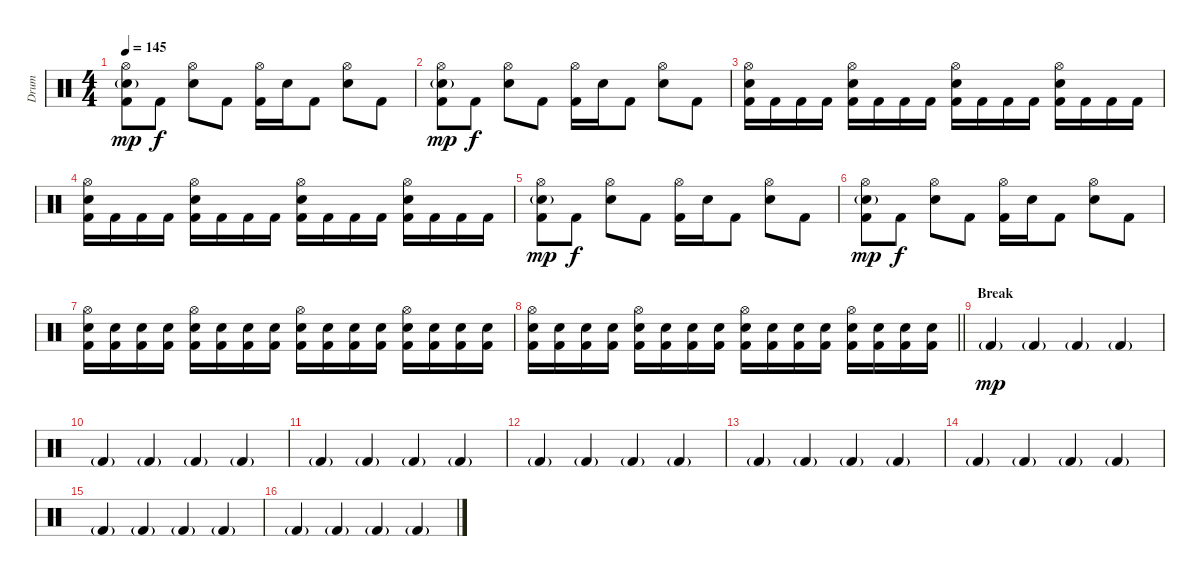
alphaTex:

\track ("Drum" "Drum") {instrument percussion}
\staff {score}
\articulation defaults
\ts (4 4)
\tempo 145
\clef neutral
\ks c
("Hi-Hat (open)" "Electric Snare (hit)"{g} "Kick (hit) 2").8{dy mp} "Kick (hit) 2".8{dy f} ("Hi-Hat (open)" "Electric Snare (hit)").8 "Kick (hit) 2".8 ("Hi-Hat (open)" "Kick (hit) 2").16 "Electric Snare (hit)".16 "Kick (hit) 2".8 ("Hi-Hat (open)" "Electric Snare (hit)").8 "Kick (hit) 2".8 |
("Hi-Hat (open)" "Electric Snare (hit)"{g} "Kick (hit) 2").8{dy mp} "Kick (hit) 2".8{dy f} ("Hi-Hat (open)" "Electric Snare (hit)").8 "Kick (hit) 2".8 ("Hi-Hat (open)" "Kick (hit) 2").16 "Electric Snare (hit)".16 "Kick (hit) 2".8 ("Hi-Hat (open)" "Electric Snare (hit)").8 "Kick (hit) 2".8 |
("Hi-Hat (open)" "Electric Snare (hit)" "Kick (hit) 2").16 "Kick (hit) 2".16 "Kick (hit) 2".16 "Kick (hit) 2".16 ("Hi-Hat (open)" "Electric Snare (hit)" "Kick (hit) 2").16 "Kick (hit) 2".16 "Kick (hit) 2".16 "Kick (hit) 2".16 ("Hi-Hat (open)" "Electric Snare (hit)" "Kick (hit) 2").16 "Kick (hit) 2".16 "Kick (hit) 2".16 "Kick (hit) 2".16 ("Hi-Hat (open)" "Electric Snare (hit)" "Kick (hit) 2").16 "Kick (hit) 2".16 "Kick (hit) 2".16 "Kick (hit) 2".16 |
("Hi-Hat (open)" "Electric Snare (hit)" "Kick (hit) 2").16 "Kick (hit) 2".16 "Kick (hit) 2".16 "Kick (hit) 2".16 ("Hi-Hat (open)" "Electric Snare (hit)" "Kick (hit) 2").16 "Kick (hit) 2".16 "Kick (hit) 2".16 "Kick (hit) 2".16 ("Hi-Hat (open)" "Electric Snare (hit)" "Kick (hit) 2").16 "Kick (hit) 2".16 "Kick (hit) 2".16 "Kick (hit) 2".16 ("Hi-Hat (open)" "Electric Snare (hit)" "Kick (hit) 2").16 "Kick (hit) 2".16 "Kick (hit) 2".16 "Kick (hit) 2".16 |
("Hi-Hat (open)" "Electric Snare (hit)"{g} "Kick (hit) 2").8{dy mp} "Kick (hit) 2".8{dy f} ("Hi-Hat (open)" "Electric Snare (hit)").8 "Kick (hit) 2".8 ("Hi-Hat (open)" "Kick (hit) 2").16 "Electric Snare (hit)".16 "Kick (hit) 2".8 ("Hi-Hat (open)" "Electric Snare (hit)").8 "Kick (hit) 2".8 |
("Hi-Hat (open)" "Electric Snare (hit)"{g} "Kick (hit) 2").8{dy mp} "Kick (hit) 2".8{dy f} ("Hi-Hat (open)" "Electric Snare (hit)").8 "Kick (hit) 2".8 ("Hi-Hat (open)" "Kick (hit) 2").16 "Electric Snare (hit)".16 "Kick (hit) 2".8 ("Hi-Hat (open)" "Electric Snare (hit)").8 "Kick (hit) 2".8 |
("Hi-Hat (open)" "Electric Snare (hit)" "Kick (hit) 2").16 ("Electric Snare (hit)" "Kick (hit) 2").16 ("Electric Snare (hit)" "Kick (hit) 2").16 ("Electric Snare (hit)" "Kick (hit) 2").16 ("Hi-Hat (open)" "Electric Snare (hit)" "Kick (hit) 2").16 ("Electric Snare (hit)" "Kick (hit) 2").16 ("Electric Snare (hit)" "Kick (hit) 2").16 ("Electric Snare (hit)" "Kick (hit) 2").16 ("Hi-Hat (open)" "Electric Snare (hit)" "Kick (hit) 2").16 ("Electric Snare (hit)" "Kick (hit) 2").16 ("Electric Snare (hit)" "Kick (hit) 2").16 ("Electric Snare (hit)" "Kick (hit) 2").16 ("Hi-Hat (open)" "Electric Snare (hit)" "Kick (hit) 2").16 ("Electric Snare (hit)" "Kick (hit) 2").16 ("Electric Snare (hit)" "Kick (hit) 2").16 ("Electric Snare (hit)" "Kick (hit) 2").16 |
\barLineRight lightlight
("Hi-Hat (open)" "Electric Snare (hit)" "Kick (hit) 2").16 ("Electric Snare (hit)" "Kick (hit) 2").16 ("Electric Snare (hit)" "Kick (hit) 2").16 ("Electric Snare (hit)" "Kick (hit) 2").16 ("Hi-Hat (open)" "Electric Snare (hit)" "Kick (hit) 2").16 ("Electric Snare (hit)" "Kick (hit) 2").16 ("Electric Snare (hit)" "Kick (hit) 2").16 ("Electric Snare (hit)" "Kick (hit) 2").16 ("Hi-Hat (open)" "Electric Snare (hit)" "Kick (hit) 2").16 ("Electric Snare (hit)" "Kick (hit) 2").16 ("Electric Snare (hit)" "Kick (hit) 2").16 ("Electric Snare (hit)" "Kick (hit) 2").16 ("Hi-Hat (open)" "Electric Snare (hit)" "Kick (hit) 2").16 ("Electric Snare (hit)" "Kick (hit) 2").16 ("Electric Snare (hit)" "Kick (hit) 2").16 ("Electric Snare (hit)" "Kick (hit) 2").16 |
\section ("" "Break")
"Kick (hit) 2"{g}.4{dy mp} "Kick (hit) 2"{g}.4 "Kick (hit) 2"{g}.4 "Kick (hit) 2"{g}.4 |
"Kick (hit) 2"{g}.4 "Kick (hit) 2"{g}.4 "Kick (hit) 2"{g}.4 "Kick (hit) 2"{g}.4 |
"Kick (hit) 2"{g}.4 "Kick (hit) 2"{g}.4 "Kick (hit) 2"{g}.4 "Kick (hit) 2"{g}.4 |
"Kick (hit) 2"{g}.4 "Kick (hit) 2"{g}.4 "Kick (hit) 2"{g}.4 "Kick (hit) 2"{g}.4 |
"Kick (hit) 2"{g}.4 "Kick (hit) 2"{g}.4 "Kick (hit) 2"{g}.4 "Kick (hit) 2"{g}.4 |
"Kick (hit) 2"{g}.4 "Kick (hit) 2"{g}.4 "Kick (hit) 2"{g}.4 "Kick (hit) 2"{g}.4 |
"Kick (hit) 2"{g}.4 "Kick (hit) 2"{g}.4 "Kick (hit) 2"{g}.4 "Kick (hit) 2"{g}.4 |
"Kick (hit) 2"{g}.4 "Kick (hit) 2"{g}.4 "Kick (hit) 2"{g}.4 "Kick (hit) 2"{g}.4
